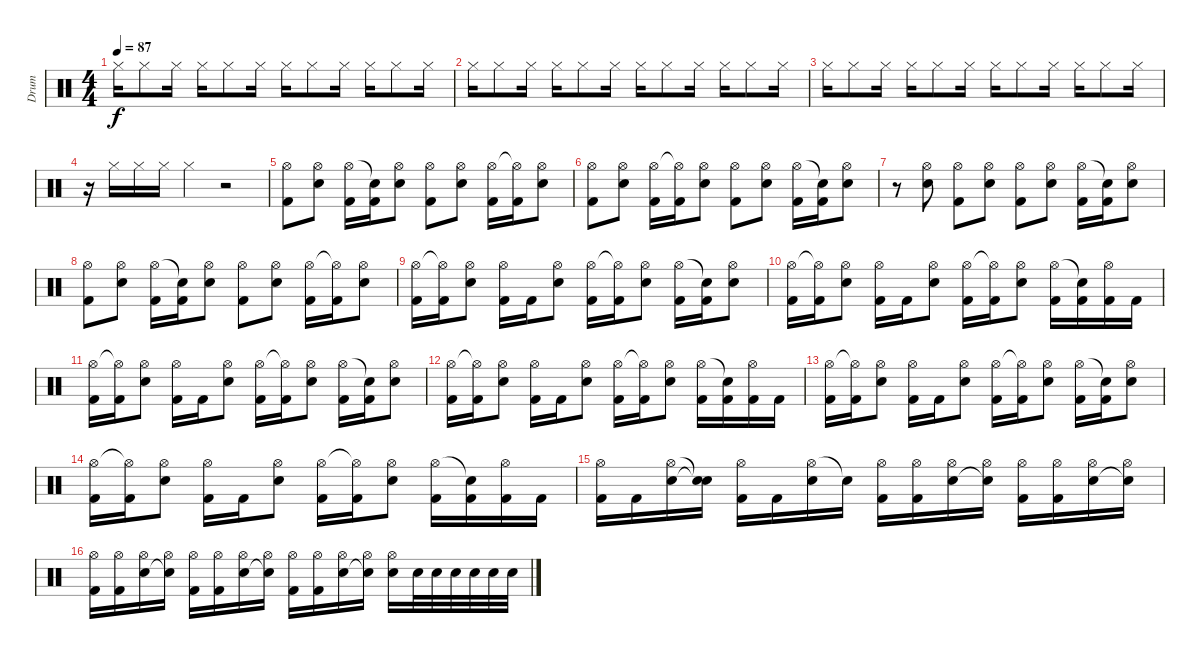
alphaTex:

\track ("Drum" "Drum") {instrument percussion}
\staff {score}
\articulation defaults
\ts (4 4)
\tempo 87
\clef neutral
\ks c "Hi-Hat (closed)".16{dy f} "Hi-Hat (closed)".8 "Hi-Hat (closed)".16 "Hi-Hat (closed)".16 "Hi-Hat (closed)".8 "Hi-Hat (closed)".16 "Hi-Hat (closed)".16 "Hi-Hat (closed)".8 "Hi-Hat (closed)".16 "Hi-Hat (closed)".16 "Hi-Hat (closed)".8 "Hi-Hat (closed)".16
|
"Hi-Hat (closed)".16 "Hi-Hat (closed)".8 "Hi-Hat (closed)".16 "Hi-Hat (closed)".16 "Hi-Hat (closed)".8 "Hi-Hat (closed)".16 "Hi-Hat (closed)".16 "Hi-Hat (closed)".8 "Hi-Hat (closed)".16 "Hi-Hat (closed)".16 "Hi-Hat (closed)".8 "Hi-Hat (closed)".16 |
"Hi-Hat (closed)".16 "Hi-Hat (closed)".8 "Hi-Hat (closed)".16 "Hi-Hat (closed)".16 "Hi-Hat (closed)".8 "Hi-Hat (closed)".16 "Hi-Hat (closed)".16 "Hi-Hat (closed)".8 "Hi-Hat (closed)".16 "Hi-Hat (closed)".16 "Hi-Hat (closed)".8 "Hi-Hat (closed)".16 |
r.16 "Hi-Hat (closed)".16 "Hi-Hat (closed)".16 "Hi-Hat (closed)".16 "Hi-Hat (closed)".4 r.2 |
("Hi-Hat (open)" "Kick (hit) 2").8 ("Hi-Hat (open)" "Electric Snare (hit)").8 ("Hi-Hat (open)" "Kick (hit) 2").16 ("Snare (hit)"{t} "Kick (hit) 2").16 ("Hi-Hat (open)" "Electric Snare (hit)").8 ("Hi-Hat (open)" "Kick (hit) 2").8 ("Hi-Hat (open)" "Electric Snare (hit)").8 ("Hi-Hat (open)" "Kick (hit) 2").16 ("Hi-Hat (open)"{t} "Kick (hit) 2").16 ("Hi-Hat (open)" "Electric Snare (hit)").8 |
("Hi-Hat (open)" "Kick (hit) 2").8 ("Hi-Hat (open)" "Electric Snare (hit)").8 ("Hi-Hat (open)" "Kick (hit) 2").16 ("Hi-Hat (open)"{t} "Kick (hit) 2").16 ("Hi-Hat (open)" "Electric Snare (hit)").8 ("Hi-Hat (open)" "Kick (hit) 2").8 ("Hi-Hat (open)" "Electric Snare (hit)").8 ("Hi-Hat (open)" "Kick (hit) 2").16 ("Snare (hit)"{t} "Kick (hit) 2").16 ("Hi-Hat (open)" "Electric Snare (hit)").8 |
r.8 ("Hi-Hat (open)" "Electric Snare (hit)").8 ("Hi-Hat (open)" "Kick (hit) 2").8 ("Hi-Hat (open)" "Electric Snare (hit)").8 ("Hi-Hat (open)" "Kick (hit) 2").8 ("Hi-Hat (open)" "Electric Snare (hit)").8 ("Hi-Hat (open)" "Kick (hit) 2").16 ("Snare (hit)"{t} "Kick (hit) 2").16 ("Hi-Hat (open)" "Electric Snare (hit)").8 |
("Hi-Hat (open)" "Kick (hit) 2").8 ("Hi-Hat (open)" "Electric Snare (hit)").8 ("Hi-Hat (open)" "Kick (hit) 2").16 ("Snare (hit)"{t} "Kick (hit) 2").16 ("Hi-Hat (open)" "Electric Snare (hit)").8 ("Hi-Hat (open)" "Kick (hit) 2").8 ("Hi-Hat (open)" "Electric Snare (hit)").8 ("Hi-Hat (open)" "Kick (hit) 2").16 ("Hi-Hat (open)"{t} "Kick (hit) 2").16 ("Hi-Hat (open)" "Electric Snare (hit)").8 |
("Hi-Hat (open)" "Kick (hit) 2").16 ("Hi-Hat (open)"{t} "Kick (hit) 2").16 ("Hi-Hat (open)" "Electric Snare (hit)").8 ("Hi-Hat (open)" "Kick (hit) 2").16 "Kick (hit) 2".16 ("Hi-Hat (open)" "Electric Snare (hit)").8 ("Hi-Hat (open)" "Kick (hit) 2").16 ("Hi-Hat (open)"{t} "Kick (hit) 2").16 ("Hi-Hat (open)" "Electric Snare (hit)").8 ("Hi-Hat (open)" "Kick (hit) 2").16 ("Snare (hit)"{t} "Kick (hit) 2").16 ("Hi-Hat (open)" "Electric Snare (hit)").8 |
("Hi-Hat (open)" "Kick (hit) 2").16 ("Hi-Hat (open)"{t} "Kick (hit) 2").16 ("Hi-Hat (open)" "Electric Snare (hit)").8 ("Hi-Hat (open)" "Kick (hit) 2").16 "Kick (hit) 2".16 ("Hi-Hat (open)" "Electric Snare (hit)").8 ("Hi-Hat (open)" "Kick (hit) 2").16 ("Hi-Hat (open)"{t} "Kick (hit) 2").16 ("Hi-Hat (open)" "Electric Snare (hit)").8 ("Hi-Hat (open)" "Kick (hit) 2").16 ("Snare (hit)"{t} "Kick (hit) 2").16 ("Hi-Hat (open)" "Kick (hit) 2").16 "Kick (hit) 2".16 |
("Hi-Hat (open)" "Kick (hit) 2").16 ("Hi-Hat (open)"{t} "Kick (hit) 2").16 ("Hi-Hat (open)" "Electric Snare (hit)").8 ("Hi-Hat (open)" "Kick (hit) 2").16 "Kick (hit) 2".16 ("Hi-Hat (open)" "Electric Snare (hit)").8 ("Hi-Hat (open)" "Kick (hit) 2").16 ("Hi-Hat (open)"{t} "Kick (hit) 2").16 ("Hi-Hat (open)" "Electric Snare (hit)").8 ("Hi-Hat (open)" "Kick (hit) 2").16 ("Snare (hit)"{t} "Kick (hit) 2").16 ("Hi-Hat (open)" "Electric Snare (hit)").8 |
("Hi-Hat (open)" "Kick (hit) 2").16 ("Hi-Hat (open)"{t} "Kick (hit) 2").16 ("Hi-Hat (open)" "Electric Snare (hit)").8 ("Hi-Hat (open)" "Kick (hit) 2").16 "Kick (hit) 2".16 ("Hi-Hat (open)" "Electric Snare (hit)").8 ("Hi-Hat (open)" "Kick (hit) 2").16 ("Hi-Hat (open)"{t} "Kick (hit) 2").16 ("Hi-Hat (open)" "Electric Snare (hit)").8 ("Hi-Hat (open)" "Kick (hit) 2").16 ("Snare (hit)"{t} "Kick (hit) 2").16 ("Hi-Hat (open)" "Kick (hit) 2").16 "Kick (hit) 2".16 |
("Hi-Hat (open)" "Kick (hit) 2").16 ("Hi-Hat (open)"{t} "Kick (hit) 2").16 ("Hi-Hat (open)" "Electric Snare (hit)").8 ("Hi-Hat (open)" "Kick (hit) 2").16 "Kick (hit) 2".16 ("Hi-Hat (open)" "Electric Snare (hit)").8 ("Hi-Hat (open)" "Kick (hit) 2").16 ("Hi-Hat (open)"{t} "Kick (hit) 2").16 ("Hi-Hat (open)" "Electric Snare (hit)").8 ("Hi-Hat (open)" "Kick (hit) 2").16 ("Snare (hit)"{t} "Kick (hit) 2").16 ("Hi-Hat (open)" "Electric Snare (hit)").8 |
("Hi-Hat (open)" "Kick (hit) 2").16 ("Hi-Hat (open)"{t} "Kick (hit) 2").16 ("Hi-Hat (open)" "Electric Snare (hit)").8 ("Hi-Hat (open)" "Kick (hit) 2").16 "Kick (hit) 2".16 ("Hi-Hat (open)" "Electric Snare (hit)").8 ("Hi-Hat (open)" "Kick (hit) 2").16 ("Hi-Hat (open)"{t} "Kick (hit) 2").16 ("Hi-Hat (open)" "Electric Snare (hit)").8 ("Hi-Hat (open)" "Kick (hit) 2").16 ("Snare (hit)"{t} "Kick (hit) 2").16 ("Hi-Hat (open)" "Kick (hit) 2").16 "Kick (hit) 2".16 |
("Hi-Hat (open)" "Kick (hit) 2").16 "Kick (hit) 2".16 ("Hi-Hat (open)" "Electric Snare (hit)").16 ("Snare (hit)"{t} "Snare (hit)"{t}).16 ("Hi-Hat (open)" "Kick (hit) 2").16 "Kick (hit) 2".16 ("Hi-Hat (open)" "Electric Snare (hit)").16 "Snare (hit)"{t}.16 ("Hi-Hat (open)" "Kick (hit) 2").16 ("Hi-Hat (open)" "Kick (hit) 2").16 ("Hi-Hat (open)" "Electric Snare (hit)").16 ("Hi-Hat (open)" "Snare (hit)"{t}).16 ("Hi-Hat (open)" "Kick (hit) 2").16 ("Hi-Hat (open)" "Kick (hit) 2").16 ("Hi-Hat (open)" "Electric Snare (hit)").16 ("Hi-Hat (open)" "Snare (hit)"{t}).16 |
("Hi-Hat (open)" "Kick (hit) 2").16 ("Hi-Hat (open)" "Kick (hit) 2").16 ("Hi-Hat (open)" "Electric Snare (hit)").16 ("Hi-Hat (open)" "Snare (hit)"{t}).16 ("Hi-Hat (open)" "Kick (hit) 2").16 ("Hi-Hat (open)" "Kick (hit) 2").16 ("Hi-Hat (open)" "Electric Snare (hit)").16 ("Hi-Hat (open)" "Snare (hit)"{t}).16 ("Hi-Hat (open)" "Kick (hit) 2").16 ("Hi-Hat (open)" "Kick (hit) 2").16 ("Hi-Hat (open)" "Electric Snare (hit)").16 ("Hi-Hat (open)" "Snare (hit)"{t}).16 ("Hi-Hat (open)" "Electric Snare (hit)").16 "Electric Snare (hit)".32 "Electric Snare (hit)".32 "Electric Snare (hit)".32 "Electric Snare (hit)".32 "Electric Snare (hit)".32 "Electric Snare (hit)".32
